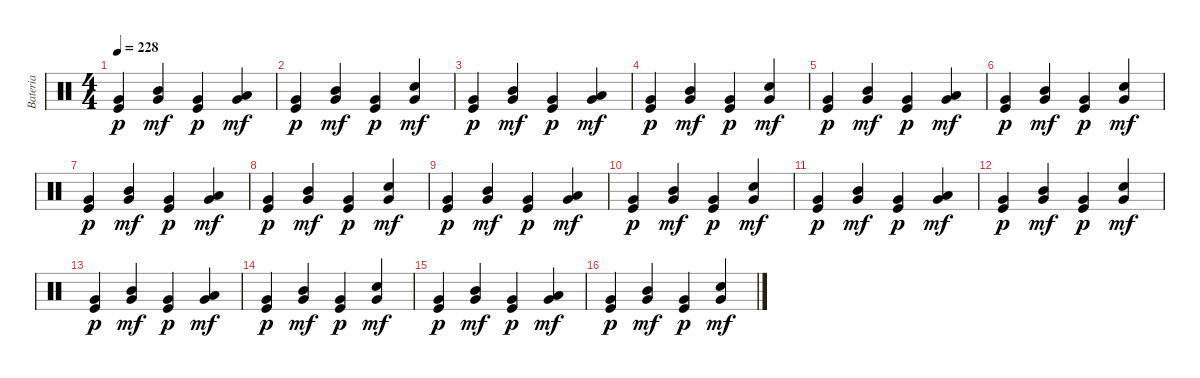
\track ("Bateria" "Bateria") {instrument percussion}
\staff {score}
\articulation defaults
\ts (4 4)
\tempo 228
\clef neutral
\ks c
("Kick (hit)" "Very Low Tom (hit)").4{dy p} ("Mid Tom (hit)" "Very Low Tom (hit)").4{dy mf} ("Kick (hit)" "Very Low Tom (hit)").4{dy p} ("Low Tom (hit)" "Very Low Tom (hit)").4{dy mf} |
("Kick (hit)" "Very Low Tom (hit)").4{dy p} ("Mid Tom (hit)" "Very Low Tom (hit)").4{dy mf} ("Kick (hit)" "Very Low Tom (hit)").4{dy p} ("Electric Snare (hit)" "Very Low Tom (hit)").4{dy mf} |
("Kick (hit)" "Very Low Tom (hit)").4{dy p} ("Mid Tom (hit)" "Very Low Tom (hit)").4{dy mf} ("Kick (hit)" "Very Low Tom (hit)").4{dy p} ("Low Tom (hit)" "Very Low Tom (hit)").4{dy mf} |
("Kick (hit)" "Very Low Tom (hit)").4{dy p} ("Mid Tom (hit)" "Very Low Tom (hit)").4{dy mf} ("Kick (hit)" "Very Low Tom (hit)").4{dy p} ("Electric Snare (hit)" "Very Low Tom (hit)").4{dy mf} |
("Kick (hit)" "Very Low Tom (hit)").4{dy p} ("Mid Tom (hit)" "Very Low Tom (hit)").4{dy mf} ("Kick (hit)" "Very Low Tom (hit)").4{dy p} ("Low Tom (hit)" "Very Low Tom (hit)").4{dy mf} |
("Kick (hit)" "Very Low Tom (hit)").4{dy p} ("Mid Tom (hit)" "Very Low Tom (hit)").4{dy mf} ("Kick (hit)" "Very Low Tom (hit)").4{dy p} ("Electric Snare (hit)" "Very Low Tom (hit)").4{dy mf} |
("Kick (hit)" "Very Low Tom (hit)").4{dy p} ("Mid Tom (hit)" "Very Low Tom (hit)").4{dy mf} ("Kick (hit)" "Very Low Tom (hit)").4{dy p} ("Low Tom (hit)" "Very Low Tom (hit)").4{dy mf} |
("Kick (hit)" "Very Low Tom (hit)").4{dy p} ("Mid Tom (hit)" "Very Low Tom (hit)").4{dy mf} ("Kick (hit)" "Very Low Tom (hit)").4{dy p} ("Electric Snare (hit)" "Very Low Tom (hit)").4{dy mf} |
("Kick (hit)" "Very Low Tom (hit)").4{dy p} ("Mid Tom (hit)" "Very Low Tom (hit)").4{dy mf} ("Kick (hit)" "Very Low Tom (hit)").4{dy p} ("Low Tom (hit)" "Very Low Tom (hit)").4{dy mf} |
("Kick (hit)" "Very Low Tom (hit)").4{dy p} ("Mid Tom (hit)" "Very Low Tom (hit)").4{dy mf} ("Kick (hit)" "Very Low Tom (hit)").4{dy p} ("Electric Snare (hit)" "Very Low Tom (hit)").4{dy mf} |
("Kick (hit)" "Very Low Tom (hit)").4{dy p} ("Mid Tom (hit)" "Very Low Tom (hit)").4{dy mf} ("Kick (hit)" "Very Low Tom (hit)").4{dy p} ("Low Tom (hit)" "Very Low Tom (hit)").4{dy mf} |
("Kick (hit)" "Very Low Tom (hit)").4{dy p} ("Mid Tom (hit)" "Very Low Tom (hit)").4{dy mf} ("Kick (hit)" "Very Low Tom (hit)").4{dy p} ("Electric Snare (hit)" "Very Low Tom (hit)").4{dy mf} |
("Kick (hit)" "Very Low Tom (hit)").4{dy p} ("Mid Tom (hit)" "Very Low Tom (hit)").4{dy mf} ("Kick (hit)" "Very Low Tom (hit)").4{dy p} ("Low Tom (hit)" "Very Low Tom (hit)").4{dy mf} |
("Kick (hit)" "Very Low Tom (hit)").4{dy p} ("Mid Tom (hit)" "Very Low Tom (hit)").4{dy mf} ("Kick (hit)" "Very Low Tom (hit)").4{dy p} ("Electric Snare (hit)" "Very Low Tom (hit)").4{dy mf} |
("Kick (hit)" "Very Low Tom (hit)").4{dy p} ("Mid Tom (hit)" "Very Low Tom (hit)").4{dy mf} ("Kick (hit)" "Very Low Tom (hit)").4{dy p} ("Low Tom (hit)" "Very Low Tom (hit)").4{dy mf} |
("Kick (hit)" "Very Low Tom (hit)").4{dy p} ("Mid Tom (hit)" "Very Low Tom (hit)").4{dy mf} ("Kick (hit)" "Very Low Tom (hit)").4{dy p} ("Electric Snare (hit)" "Very Low Tom (hit)").4{dy mf}
